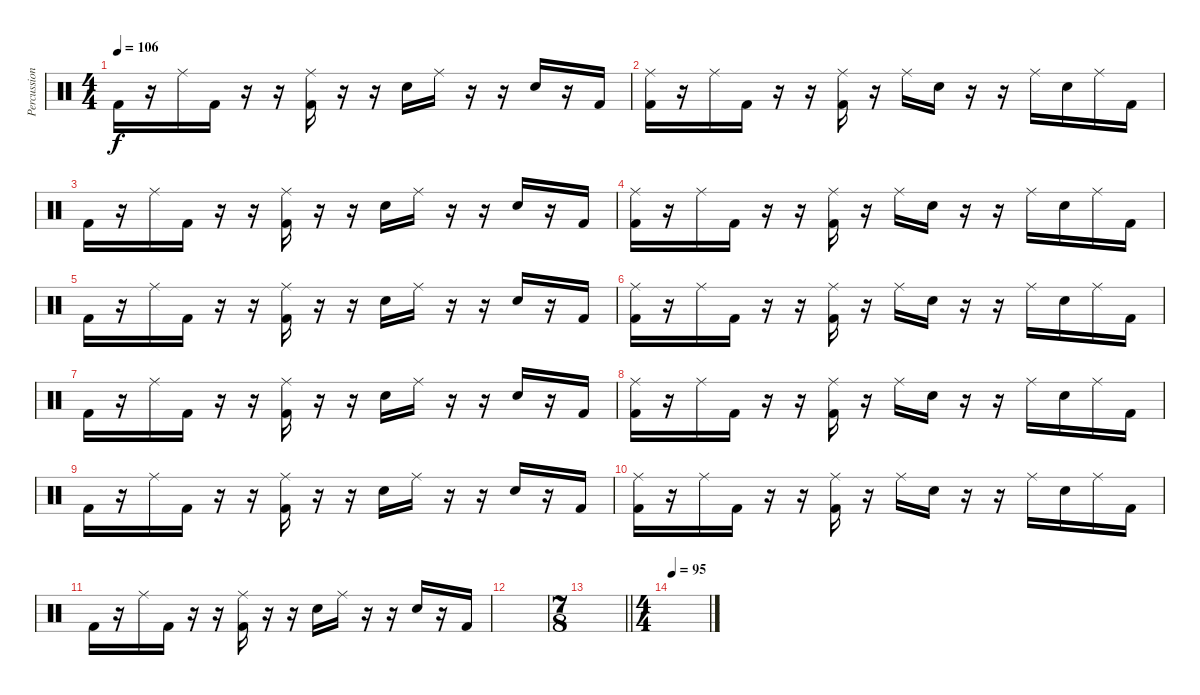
\track ("Percussions" "Percussion") {instrument percussion}
\staff {score}
\articulation defaults
\ts (4 4)
\tempo 106
\clef neutral
\ks c "Kick (hit) 2".16{dy f}
r.16 "Ride (middle)".16 "Kick (hit) 2".16 r.16 r.16 ("Ride (middle)" "Kick (hit) 2").16 r.16 r.16 "Electric Snare (hit)".16 "Ride (middle)".16 r.16 r.16 "Electric Snare (hit)".16 r.16 "Kick (hit) 2".16 |
("Ride (middle)" "Kick (hit) 2").16 r.16 "Ride (middle)".16 "Kick (hit) 2".16 r.16 r.16 ("Ride (middle)" "Kick (hit) 2").16 r.16 "Ride (middle)".16 "Electric Snare (hit)".16 r.16 r.16 "Ride (middle)".16 "Electric Snare (hit)".16 "Ride (middle)".16 "Kick (hit) 2".16 |
"Kick (hit) 2".16 r.16 "Ride (middle)".16 "Kick (hit) 2".16 r.16 r.16 ("Ride (middle)" "Kick (hit) 2").16 r.16 r.16 "Electric Snare (hit)".16 "Ride (middle)".16 r.16 r.16 "Electric Snare (hit)".16 r.16 "Kick (hit) 2".16 |
("Ride (middle)" "Kick (hit) 2").16 r.16 "Ride (middle)".16 "Kick (hit) 2".16 r.16 r.16 ("Ride (middle)" "Kick (hit) 2").16 r.16 "Ride (middle)".16 "Electric Snare (hit)".16 r.16 r.16 "Ride (middle)".16 "Electric Snare (hit)".16 "Ride (middle)".16 "Kick (hit) 2".16 |
"Kick (hit) 2".16 r.16 "Ride (middle)".16 "Kick (hit) 2".16 r.16 r.16 ("Ride (middle)" "Kick (hit) 2").16 r.16 r.16 "Electric Snare (hit)".16 "Ride (middle)".16 r.16 r.16 "Electric Snare (hit)".16 r.16 "Kick (hit) 2".16 |
("Ride (middle)" "Kick (hit) 2").16 r.16 "Ride (middle)".16 "Kick (hit) 2".16 r.16 r.16 ("Ride (middle)" "Kick (hit) 2").16 r.16 "Ride (middle)".16 "Electric Snare (hit)".16 r.16 r.16 "Ride (middle)".16 "Electric Snare (hit)".16 "Ride (middle)".16 "Kick (hit) 2".16 |
"Kick (hit) 2".16 r.16 "Ride (middle)".16 "Kick (hit) 2".16 r.16 r.16 ("Ride (middle)" "Kick (hit) 2").16 r.16 r.16 "Electric Snare (hit)".16 "Ride (middle)".16 r.16 r.16 "Electric Snare (hit)".16 r.16 "Kick (hit) 2".16 |
("Ride (middle)" "Kick (hit) 2").16 r.16 "Ride (middle)".16 "Kick (hit) 2".16 r.16 r.16 ("Ride (middle)" "Kick (hit) 2").16 r.16 "Ride (middle)".16 "Electric Snare (hit)".16 r.16 r.16 "Ride (middle)".16 "Electric Snare (hit)".16 "Ride (middle)".16 "Kick (hit) 2".16 |
"Kick (hit) 2".16 r.16 "Ride (middle)".16 "Kick (hit) 2".16 r.16 r.16 ("Ride (middle)" "Kick (hit) 2").16 r.16 r.16 "Electric Snare (hit)".16 "Ride (middle)".16 r.16 r.16 "Electric Snare (hit)".16 r.16 "Kick (hit) 2".16 |
("Ride (middle)" "Kick (hit) 2").16 r.16 "Ride (middle)".16 "Kick (hit) 2".16 r.16 r.16 ("Ride (middle)" "Kick (hit) 2").16 r.16 "Ride (middle)".16 "Electric Snare (hit)".16 r.16 r.16 "Ride (middle)".16 "Electric Snare (hit)".16 "Ride (middle)".16 "Kick (hit) 2".16 |
"Kick (hit) 2".16 r.16 "Ride (middle)".16 "Kick (hit) 2".16 r.16 r.16 ("Ride (middle)" "Kick (hit) 2").16 r.16 r.16 "Electric Snare (hit)".16 "Ride (middle)".16 r.16 r.16 "Electric Snare (hit)".16 r.16 "Kick (hit) 2".16 |
|
\ts (7 8)
\barLineRight lightlight
|
\ts (4 4)
\tempo 95
